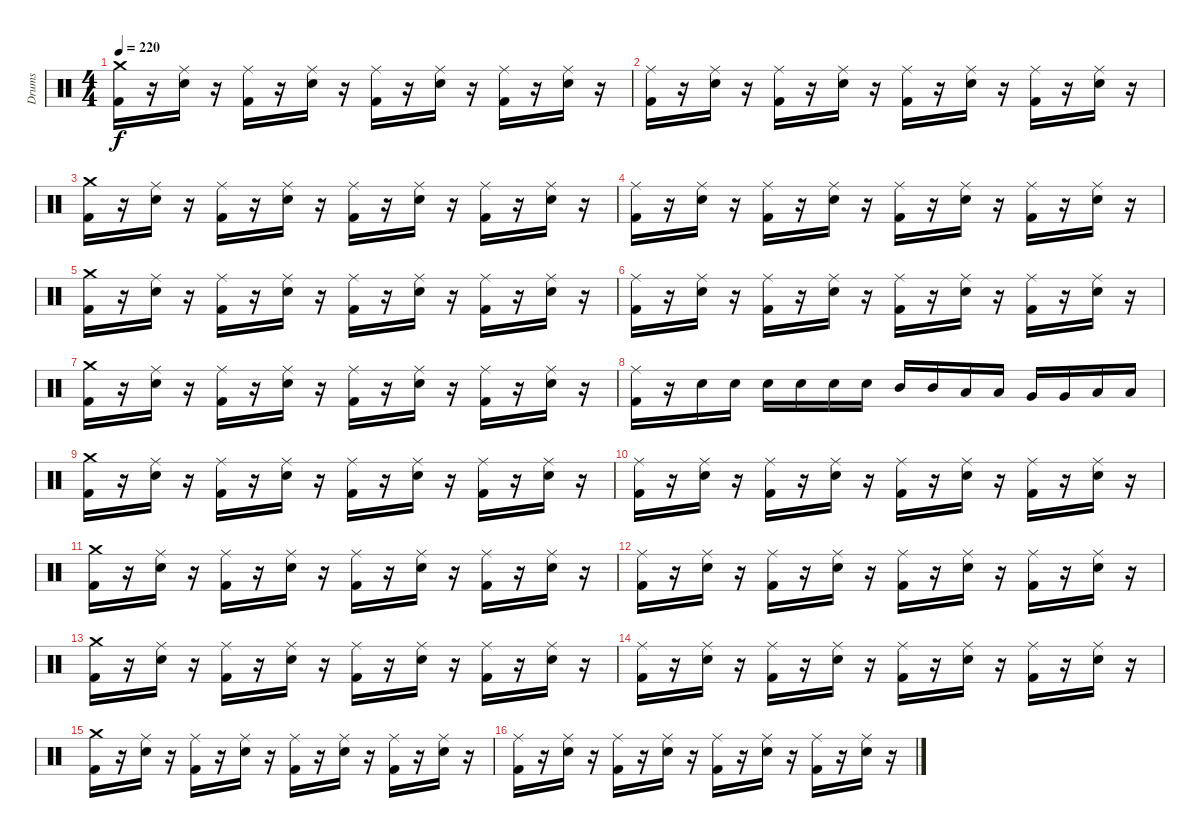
\track ("Drums" "Drums") {instrument percussion}
\staff {score}
\articulation defaults
\ts (4 4)
\tempo 220
\clef neutral
\ks c
("Crash medium (hit)" "Kick (hit) 2").16{dy f} r.16 ("Ride (middle)" "Electric Snare (hit)").16 r.16 ("Ride (middle)" "Kick (hit) 2").16 r.16 ("Ride (middle)" "Electric Snare (hit)").16 r.16 ("Ride (middle)" "Kick (hit) 2").16 r.16 ("Ride (middle)" "Electric Snare (hit)").16 r.16 ("Ride (middle)" "Kick (hit) 2").16 r.16 ("Ride (middle)" "Electric Snare (hit)").16 r.16 |
("Ride (middle)" "Kick (hit) 2").16 r.16 ("Ride (middle)" "Electric Snare (hit)").16 r.16 ("Ride (middle)" "Kick (hit) 2").16 r.16 ("Ride (middle)" "Electric Snare (hit)").16 r.16 ("Ride (middle)" "Kick (hit) 2").16 r.16 ("Ride (middle)" "Electric Snare (hit)").16 r.16 ("Ride (middle)" "Kick (hit) 2").16 r.16 ("Ride (middle)" "Electric Snare (hit)").16 r.16 |
("Crash medium (hit)" "Kick (hit) 2").16 r.16 ("Ride (middle)" "Electric Snare (hit)").16 r.16 ("Ride (middle)" "Kick (hit) 2").16 r.16 ("Ride (middle)" "Electric Snare (hit)").16 r.16 ("Ride (middle)" "Kick (hit) 2").16 r.16 ("Ride (middle)" "Electric Snare (hit)").16 r.16 ("Ride (middle)" "Kick (hit) 2").16 r.16 ("Ride (middle)" "Electric Snare (hit)").16 r.16 |
("Ride (middle)" "Kick (hit) 2").16 r.16 ("Ride (middle)" "Electric Snare (hit)").16 r.16 ("Ride (middle)" "Kick (hit) 2").16 r.16 ("Ride (middle)" "Electric Snare (hit)").16 r.16 ("Ride (middle)" "Kick (hit) 2").16 r.16 ("Ride (middle)" "Electric Snare (hit)").16 r.16 ("Ride (middle)" "Kick (hit) 2").16 r.16 ("Ride (middle)" "Electric Snare (hit)").16 r.16 |
("Crash medium (hit)" "Kick (hit) 2").16 r.16 ("Ride (middle)" "Electric Snare (hit)").16 r.16 ("Ride (middle)" "Kick (hit) 2").16 r.16 ("Ride (middle)" "Electric Snare (hit)").16 r.16 ("Ride (middle)" "Kick (hit) 2").16 r.16 ("Ride (middle)" "Electric Snare (hit)").16 r.16 ("Ride (middle)" "Kick (hit) 2").16 r.16 ("Ride (middle)" "Electric Snare (hit)").16 r.16 |
("Ride (middle)" "Kick (hit) 2").16 r.16 ("Ride (middle)" "Electric Snare (hit)").16 r.16 ("Ride (middle)" "Kick (hit) 2").16 r.16 ("Ride (middle)" "Electric Snare (hit)").16 r.16 ("Ride (middle)" "Kick (hit) 2").16 r.16 ("Ride (middle)" "Electric Snare (hit)").16 r.16 ("Ride (middle)" "Kick (hit) 2").16 r.16 ("Ride (middle)" "Electric Snare (hit)").16 r.16 |
("Crash medium (hit)" "Kick (hit) 2").16 r.16 ("Ride (middle)" "Electric Snare (hit)").16 r.16 ("Ride (middle)" "Kick (hit) 2").16 r.16 ("Ride (middle)" "Electric Snare (hit)").16 r.16 ("Ride (middle)" "Kick (hit) 2").16 r.16 ("Ride (middle)" "Electric Snare (hit)").16 r.16 ("Ride (middle)" "Kick (hit) 2").16 r.16 ("Ride (middle)" "Electric Snare (hit)").16 r.16 |
("Ride (middle)" "Kick (hit) 2").16 r.16 "Electric Snare (hit)".16 "Electric Snare (hit)".16 "Electric Snare (hit)".16 "Electric Snare (hit)".16 "Electric Snare (hit)".16 "Electric Snare (hit)".16 "Mid Tom (hit)".16 "Mid Tom (hit)".16 "Low Tom (hit)".16 "Low Tom (hit)".16 "Very Low Tom (hit)".16 "Very Low Tom (hit)".16 "Low Floor Tom (hit)".16 "Low Floor Tom (hit)".16 |
("Crash medium (hit)" "Kick (hit) 2").16 r.16 ("Ride (middle)" "Electric Snare (hit)").16 r.16 ("Ride (middle)" "Kick (hit) 2").16 r.16 ("Ride (middle)" "Electric Snare (hit)").16 r.16 ("Ride (middle)" "Kick (hit) 2").16 r.16 ("Ride (middle)" "Electric Snare (hit)").16 r.16 ("Ride (middle)" "Kick (hit) 2").16 r.16 ("Ride (middle)" "Electric Snare (hit)").16 r.16 |
("Ride (middle)" "Kick (hit) 2").16 r.16 ("Ride (middle)" "Electric Snare (hit)").16 r.16 ("Ride (middle)" "Kick (hit) 2").16 r.16 ("Ride (middle)" "Electric Snare (hit)").16 r.16 ("Ride (middle)" "Kick (hit) 2").16 r.16 ("Ride (middle)" "Electric Snare (hit)").16 r.16 ("Ride (middle)" "Kick (hit) 2").16 r.16 ("Ride (middle)" "Electric Snare (hit)").16 r.16 |
("Crash medium (hit)" "Kick (hit) 2").16 r.16 ("Ride (middle)" "Electric Snare (hit)").16 r.16 ("Ride (middle)" "Kick (hit) 2").16 r.16 ("Ride (middle)" "Electric Snare (hit)").16 r.16 ("Ride (middle)" "Kick (hit) 2").16 r.16 ("Ride (middle)" "Electric Snare (hit)").16 r.16 ("Ride (middle)" "Kick (hit) 2").16 r.16 ("Ride (middle)" "Electric Snare (hit)").16 r.16 |
("Ride (middle)" "Kick (hit) 2").16 r.16 ("Ride (middle)" "Electric Snare (hit)").16 r.16 ("Ride (middle)" "Kick (hit) 2").16 r.16 ("Ride (middle)" "Electric Snare (hit)").16 r.16 ("Ride (middle)" "Kick (hit) 2").16 r.16 ("Ride (middle)" "Electric Snare (hit)").16 r.16 ("Ride (middle)" "Kick (hit) 2").16 r.16 ("Ride (middle)" "Electric Snare (hit)").16 r.16 |
("Crash medium (hit)" "Kick (hit) 2").16 r.16 ("Ride (middle)" "Electric Snare (hit)").16 r.16 ("Ride (middle)" "Kick (hit) 2").16 r.16 ("Ride (middle)" "Electric Snare (hit)").16 r.16 ("Ride (middle)" "Kick (hit) 2").16 r.16 ("Ride (middle)" "Electric Snare (hit)").16 r.16 ("Ride (middle)" "Kick (hit) 2").16 r.16 ("Ride (middle)" "Electric Snare (hit)").16 r.16 |
("Ride (middle)" "Kick (hit) 2").16 r.16 ("Ride (middle)" "Electric Snare (hit)").16 r.16 ("Ride (middle)" "Kick (hit) 2").16 r.16 ("Ride (middle)" "Electric Snare (hit)").16 r.16 ("Ride (middle)" "Kick (hit) 2").16 r.16 ("Ride (middle)" "Electric Snare (hit)").16 r.16 ("Ride (middle)" "Kick (hit) 2").16 r.16 ("Ride (middle)" "Electric Snare (hit)").16 r.16 |
("Crash medium (hit)" "Kick (hit) 2").16 r.16 ("Ride (middle)" "Electric Snare (hit)").16 r.16 ("Ride (middle)" "Kick (hit) 2").16 r.16 ("Ride (middle)" "Electric Snare (hit)").16 r.16 ("Ride (middle)" "Kick (hit) 2").16 r.16 ("Ride (middle)" "Electric Snare (hit)").16 r.16 ("Ride (middle)" "Kick (hit) 2").16 r.16 ("Ride (middle)" "Electric Snare (hit)").16 r.16 |
("Ride (middle)" "Kick (hit) 2").16 r.16 ("Ride (middle)" "Electric Snare (hit)").16 r.16 ("Ride (middle)" "Kick (hit) 2").16 r.16 ("Ride (middle)" "Electric Snare (hit)").16 r.16 ("Ride (middle)" "Kick (hit) 2").16 r.16 ("Ride (middle)" "Electric Snare (hit)").16 r.16 ("Ride (middle)" "Kick (hit) 2").16 r.16 ("Ride (middle)" "Electric Snare (hit)").16 r.16
